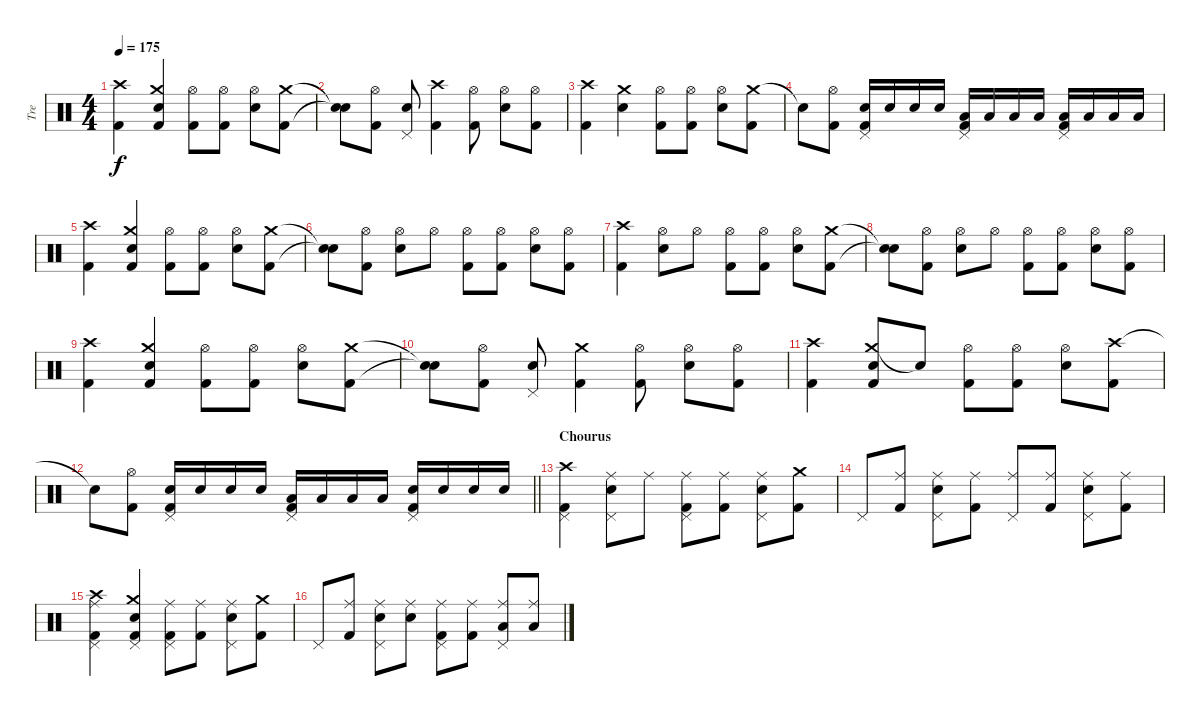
\track ("Tre" "Tre") {instrument percussion}
\staff {score}
\articulation defaults
\ts (4 4)
\tempo 175
\clef neutral
\ks c
("Crash high (hit)" "Kick (hit) 2").4{dy f} ("Crash medium (hit)" "Snare (hit) 2" "Kick (hit) 2").4 ("Hi-Hat (open)" "Kick (hit) 2").8 ("Hi-Hat (open)" "Kick (hit) 2").8 ("Hi-Hat (open)" "Snare (hit) 2").8 ("Crash medium (hit)" "Kick (hit) 2").8 |
("Snare (hit)"{t} "Snare (hit)"{t}).8 ("Hi-Hat (open)" "Kick (hit) 2").8 ("Snare (hit) 2" "Pedal Hi-Hat (hit)").8 ("Crash high (hit)" "Kick (hit) 2").4 ("Hi-Hat (open)" "Kick (hit) 2").8 ("Hi-Hat (open)" "Snare (hit) 2").8 ("Hi-Hat (open)" "Kick (hit) 2").8 |
("Crash high (hit)" "Kick (hit) 2").4 ("Crash medium (hit)" "Snare (hit) 2").4 ("Hi-Hat (open)" "Kick (hit) 2").8 ("Hi-Hat (open)" "Kick (hit) 2").8 ("Hi-Hat (open)" "Snare (hit) 2").8 ("Crash medium (hit)" "Kick (hit) 2").8 |
"Snare (hit)"{t}.8 ("Hi-Hat (open)" "Kick (hit) 2").8 ("Snare (hit) 2" "Pedal Hi-Hat (hit)" "Kick (hit) 2").16 "Snare (hit) 2".16 "Snare (hit) 2".16 "Snare (hit) 2".16 ("Low Tom (hit)" "Pedal Hi-Hat (hit)" "Kick (hit) 2").16 "Low Tom (hit)".16 "Low Tom (hit)".16 "Low Tom (hit)".16 ("Low Floor Tom (hit)" "Pedal Hi-Hat (hit)" "Kick (hit) 2").16 "Low Floor Tom (hit)".16 "Low Floor Tom (hit)".16 "Low Floor Tom (hit)".16 |
("Crash high (hit)" "Kick (hit) 2").4 ("Crash medium (hit)" "Snare (hit) 2" "Kick (hit) 2").4 ("Hi-Hat (open)" "Kick (hit) 2").8 ("Hi-Hat (open)" "Kick (hit) 2").8 ("Hi-Hat (open)" "Snare (hit) 2").8 ("Crash medium (hit)" "Kick (hit) 2").8 |
("Snare (hit)"{t} "Snare (hit)"{t}).8 ("Hi-Hat (open)" "Kick (hit) 2").8 ("Hi-Hat (open)" "Snare (hit) 2").8 "Hi-Hat (open)".8 ("Hi-Hat (open)" "Kick (hit) 2").8 ("Hi-Hat (open)" "Kick (hit) 2").8 ("Hi-Hat (open)" "Snare (hit) 2").8 ("Hi-Hat (open)" "Kick (hit) 2").8 |
("Crash high (hit)" "Kick (hit) 2").4 ("Hi-Hat (open)" "Snare (hit) 2").8 "Hi-Hat (open)".8 ("Hi-Hat (open)" "Kick (hit) 2").8 ("Hi-Hat (open)" "Kick (hit) 2").8 ("Hi-Hat (open)" "Snare (hit) 2").8 ("Crash medium (hit)" "Kick (hit) 2").8 |
("Snare (hit)"{t} "Snare (hit)"{t}).8 ("Hi-Hat (open)" "Kick (hit) 2").8 ("Hi-Hat (open)" "Snare (hit) 2").8 "Hi-Hat (open)".8 ("Hi-Hat (open)" "Kick (hit) 2").8 ("Hi-Hat (open)" "Kick (hit) 2").8 ("Hi-Hat (open)" "Snare (hit) 2").8 ("Hi-Hat (open)" "Kick (hit) 2").8 |
("Crash high (hit)" "Kick (hit) 2").4 ("Crash medium (hit)" "Snare (hit) 2" "Kick (hit) 2").4 ("Hi-Hat (open)" "Kick (hit) 2").8 ("Hi-Hat (open)" "Kick (hit) 2").8 ("Hi-Hat (open)" "Snare (hit) 2").8 ("Crash medium (hit)" "Kick (hit) 2").8 |
("Snare (hit)"{t} "Snare (hit)"{t}).8 ("Hi-Hat (open)" "Kick (hit) 2").8 ("Snare (hit) 2" "Pedal Hi-Hat (hit)").8 ("Crash medium (hit)" "Kick (hit) 2").4 ("Hi-Hat (open)" "Kick (hit) 2").8 ("Hi-Hat (open)" "Snare (hit) 2").8 ("Hi-Hat (open)" "Kick (hit) 2").8 |
("Crash high (hit)" "Kick (hit) 2").4 ("Crash medium (hit)" "Snare (hit) 2" "Kick (hit) 2").8 "Snare (hit)"{t}.8 ("Hi-Hat (open)" "Kick (hit) 2").8 ("Hi-Hat (open)" "Kick (hit) 2").8 ("Hi-Hat (open)" "Snare (hit) 2").8 ("Crash high (hit)" "Kick (hit) 2").8 |
\barLineRight lightlight "Snare (hit)"{t}.8
("Hi-Hat (open)" "Kick (hit) 2").8 ("Snare (hit) 2" "Pedal Hi-Hat (hit)" "Kick (hit) 2").16 "Snare (hit) 2".16 "Snare (hit) 2".16 "Snare (hit) 2".16 ("Low Tom (hit)" "Pedal Hi-Hat (hit)" "Kick (hit) 2").16 "Low Tom (hit)".16 "Low Tom (hit)".16 "Low Tom (hit)".16 ("Snare (hit) 2" "Pedal Hi-Hat (hit)" "Kick (hit) 2").16 "Snare (hit) 2".16 "Snare (hit) 2".16 "Snare (hit) 2".16 |
\section ("" "Chourus")
("Crash high (hit)" "Pedal Hi-Hat (hit)" "Kick (hit) 2").4 ("Ride (middle)" "Snare (hit) 2" "Pedal Hi-Hat (hit)").8 "Ride (middle)".8 ("Ride (middle)" "Pedal Hi-Hat (hit)" "Kick (hit) 2").8 ("Ride (middle)" "Kick (hit) 2").8 ("Ride (middle)" "Snare (hit) 2" "Pedal Hi-Hat (hit)").8 ("Crash medium (hit)" "Kick (hit) 2").8 |
"Pedal Hi-Hat (hit)".8 ("Ride (middle)" "Kick (hit) 2").8 ("Ride (middle)" "Snare (hit) 2" "Pedal Hi-Hat (hit)").8 ("Ride (middle)" "Kick (hit) 2").8 ("Ride (middle)" "Pedal Hi-Hat (hit)").8 ("Ride (middle)" "Kick (hit) 2").8 ("Ride (middle)" "Snare (hit) 2" "Pedal Hi-Hat (hit)").8 ("Ride (middle)" "Kick (hit) 2").8 |
("Crash high (hit)" "Ride (middle)" "Pedal Hi-Hat (hit)" "Kick (hit) 2").4 ("Crash medium (hit)" "Snare (hit) 2" "Pedal Hi-Hat (hit)" "Kick (hit) 2").4 ("Ride (middle)" "Pedal Hi-Hat (hit)" "Kick (hit) 2").8 ("Ride (middle)" "Kick (hit) 2").8 ("Ride (middle)" "Snare (hit) 2" "Pedal Hi-Hat (hit)").8 ("Crash medium (hit)" "Kick (hit) 2").8 |
"Pedal Hi-Hat (hit)".8 ("Ride (middle)" "Kick (hit) 2").8 ("Ride (middle)" "Snare (hit) 2" "Pedal Hi-Hat (hit)").8 ("Ride (middle)" "Snare (hit) 2").8 ("Ride (middle)" "Pedal Hi-Hat (hit)" "Kick (hit) 2").8 ("Ride (middle)" "Kick (hit) 2").8 ("Ride (middle)" "Low Tom (hit)" "Pedal Hi-Hat (hit)").8 ("Ride (middle)" "Low Tom (hit)").8
